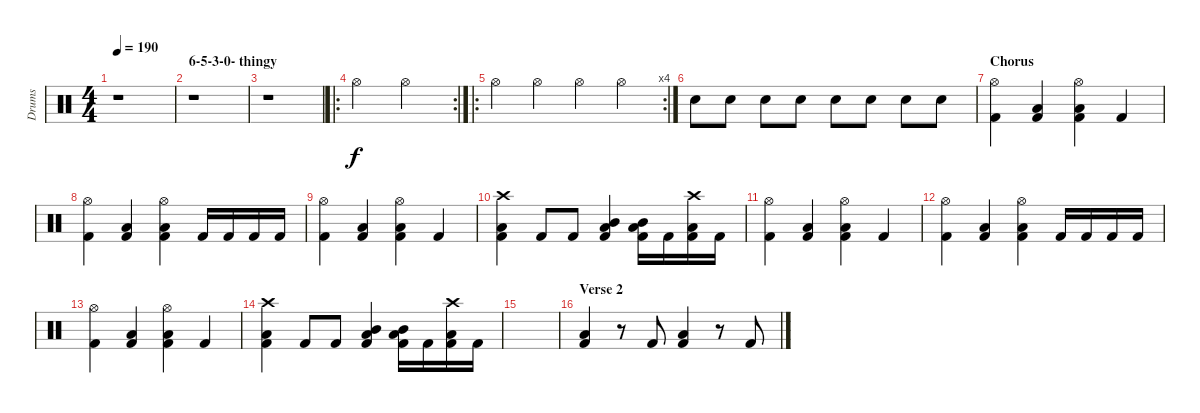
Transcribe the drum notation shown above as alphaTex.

\track ("Drums" "Drums") {instrument percussion}
\staff {score}
\articulation defaults
\ts (4 4)
\tempo 190
\clef neutral
\ks c
r.1{dy f} |
\section ("" "6-5-3-0- thingy")
r.1 |
r.1 |
\ro
\rc 2 "Hi-Hat (open)".2 "Hi-Hat (open)".2
|
\ro
\rc 4 "Hi-Hat (open)".4 "Hi-Hat (open)".4 "Hi-Hat (open)".4 "Hi-Hat (open)".4
|
"Snare (hit) 2".8 "Snare (hit) 2".8 "Snare (hit) 2".8 "Snare (hit) 2".8 "Snare (hit) 2".8 "Snare (hit) 2".8 "Snare (hit) 2".8 "Snare (hit) 2".8 |
\section ("" "Chorus")
("Hi-Hat (open)" "Kick (hit) 2").4 ("Low Floor Tom (hit)" "Kick (hit) 2").4 ("Hi-Hat (open)" "Low Floor Tom (hit)" "Kick (hit) 2").4 "Kick (hit) 2".4 |
("Hi-Hat (open)" "Kick (hit) 2").4 ("Low Floor Tom (hit)" "Kick (hit) 2").4 ("Hi-Hat (open)" "Low Floor Tom (hit)" "Kick (hit) 2").4 "Kick (hit) 2".16 "Kick (hit) 2".16 "Kick (hit) 2".16 "Kick (hit) 2".16 |
("Hi-Hat (open)" "Kick (hit) 2").4 ("Low Floor Tom (hit)" "Kick (hit) 2").4 ("Hi-Hat (open)" "Low Floor Tom (hit)" "Kick (hit) 2").4 "Kick (hit) 2".4 |
("Crash high (hit)" "Low Floor Tom (hit)" "Kick (hit) 2").4 "Kick (hit) 2".8 "Kick (hit) 2".8 ("Mid Tom (hit)" "Low Floor Tom (hit)" "Kick (hit) 2").4 ("Mid Tom (hit)" "Low Floor Tom (hit)" "Kick (hit) 2").16 "Kick (hit) 2".16 ("Crash high (hit)" "Low Floor Tom (hit)" "Kick (hit) 2").16 "Kick (hit) 2".16 |
("Hi-Hat (open)" "Kick (hit) 2").4 ("Low Floor Tom (hit)" "Kick (hit) 2").4 ("Hi-Hat (open)" "Low Floor Tom (hit)" "Kick (hit) 2").4 "Kick (hit) 2".4 |
("Hi-Hat (open)" "Kick (hit) 2").4 ("Low Floor Tom (hit)" "Kick (hit) 2").4 ("Hi-Hat (open)" "Low Floor Tom (hit)" "Kick (hit) 2").4 "Kick (hit) 2".16 "Kick (hit) 2".16 "Kick (hit) 2".16 "Kick (hit) 2".16 |
("Hi-Hat (open)" "Kick (hit) 2").4 ("Low Floor Tom (hit)" "Kick (hit) 2").4 ("Hi-Hat (open)" "Low Floor Tom (hit)" "Kick (hit) 2").4 "Kick (hit) 2".4 |
("Crash high (hit)" "Low Floor Tom (hit)" "Kick (hit) 2").4 "Kick (hit) 2".8 "Kick (hit) 2".8 ("Mid Tom (hit)" "Low Floor Tom (hit)" "Kick (hit) 2").4 ("Mid Tom (hit)" "Low Floor Tom (hit)" "Kick (hit) 2").16 "Kick (hit) 2".16 ("Crash high (hit)" "Low Floor Tom (hit)" "Kick (hit) 2").16 "Kick (hit) 2".16 |
|
\section ("" "Verse 2")
("Low Floor Tom (hit)" "Kick (hit) 2").4 r.8 "Kick (hit) 2".8 ("Low Floor Tom (hit)" "Kick (hit) 2").4 r.8 "Kick (hit) 2".8
